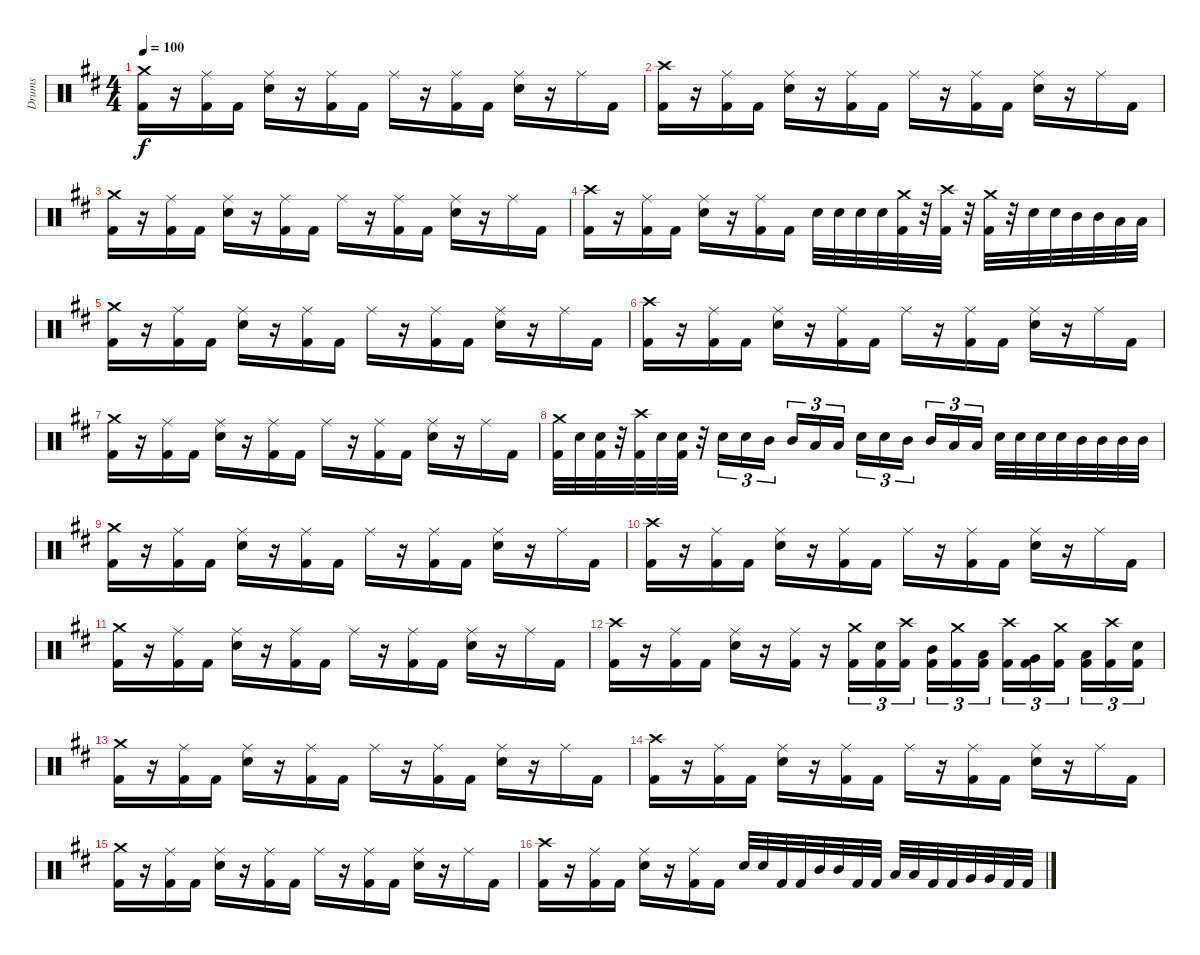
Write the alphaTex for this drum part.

\track ("Drums" "Drums") {instrument percussion}
\staff {score}
\articulation defaults
\ts (4 4)
\tempo 100
\clef neutral
\ks d
("Crash medium (hit)" "Kick (hit) 2").16{dy f} r.16 ("Ride (middle)" "Kick (hit) 2").16 "Kick (hit) 2".16 ("Ride (middle)" "Snare (hit) 2").16 r.16 ("Ride (middle)" "Kick (hit) 2").16 "Kick (hit) 2".16 "Ride (middle)".16 r.16 ("Ride (middle)" "Kick (hit) 2").16 "Kick (hit) 2".16 ("Ride (middle)" "Snare (hit) 2").16 r.16 "Ride (middle)".16 "Kick (hit) 2".16 |
("Crash high (hit)" "Kick (hit) 2").16 r.16 ("Ride (middle)" "Kick (hit) 2").16 "Kick (hit) 2".16 ("Ride (middle)" "Snare (hit) 2").16 r.16 ("Ride (middle)" "Kick (hit) 2").16 "Kick (hit) 2".16 "Ride (middle)".16 r.16 ("Ride (middle)" "Kick (hit) 2").16 "Kick (hit) 2".16 ("Ride (middle)" "Snare (hit) 2").16 r.16 "Ride (middle)".16 "Kick (hit) 2".16 |
("Crash medium (hit)" "Kick (hit) 2").16 r.16 ("Ride (middle)" "Kick (hit) 2").16 "Kick (hit) 2".16 ("Ride (middle)" "Snare (hit) 2").16 r.16 ("Ride (middle)" "Kick (hit) 2").16 "Kick (hit) 2".16 "Ride (middle)".16 r.16 ("Ride (middle)" "Kick (hit) 2").16 "Kick (hit) 2".16 ("Ride (middle)" "Snare (hit) 2").16 r.16 "Ride (middle)".16 "Kick (hit) 2".16 |
("Crash high (hit)" "Kick (hit) 2").16 r.16 ("Ride (middle)" "Kick (hit) 2").16 "Kick (hit) 2".16 ("Ride (middle)" "Snare (hit) 2").16 r.16 ("Ride (middle)" "Kick (hit) 2").16 "Kick (hit) 2".16 "Snare (hit) 2".32 "Snare (hit) 2".32 "Snare (hit) 2".32 "Snare (hit) 2".32 ("Crash medium (hit)" "Kick (hit) 2").32 r.32 ("Crash high (hit)" "Kick (hit) 2").32 r.32 ("Crash medium (hit)" "Kick (hit) 2").32 r.32 "Snare (hit) 2".32 "Snare (hit) 2".32 "Mid Tom (hit)".32 "Mid Tom (hit)".32 "Low Tom (hit)".32 "Low Tom (hit)".32 |
("Crash medium (hit)" "Kick (hit) 2").16 r.16 ("Ride (middle)" "Kick (hit) 2").16 "Kick (hit) 2".16 ("Ride (middle)" "Snare (hit) 2").16 r.16 ("Ride (middle)" "Kick (hit) 2").16 "Kick (hit) 2".16 "Ride (middle)".16 r.16 ("Ride (middle)" "Kick (hit) 2").16 "Kick (hit) 2".16 ("Ride (middle)" "Snare (hit) 2").16 r.16 "Ride (middle)".16 "Kick (hit) 2".16 |
("Crash high (hit)" "Kick (hit) 2").16 r.16 ("Ride (middle)" "Kick (hit) 2").16 "Kick (hit) 2".16 ("Ride (middle)" "Snare (hit) 2").16 r.16 ("Ride (middle)" "Kick (hit) 2").16 "Kick (hit) 2".16 "Ride (middle)".16 r.16 ("Ride (middle)" "Kick (hit) 2").16 "Kick (hit) 2".16 ("Ride (middle)" "Snare (hit) 2").16 r.16 "Ride (middle)".16 "Kick (hit) 2".16 |
("Crash medium (hit)" "Kick (hit) 2").16 r.16 ("Ride (middle)" "Kick (hit) 2").16 "Kick (hit) 2".16 ("Ride (middle)" "Snare (hit) 2").16 r.16 ("Ride (middle)" "Kick (hit) 2").16 "Kick (hit) 2".16 "Ride (middle)".16 r.16 ("Ride (middle)" "Kick (hit) 2").16 "Kick (hit) 2".16 ("Ride (middle)" "Snare (hit) 2").16 r.16 "Ride (middle)".16 "Kick (hit) 2".16 |
("Crash medium (hit)" "Kick (hit) 2").32 "Snare (hit) 2".32 ("Snare (hit) 2" "Kick (hit) 2").32 r.32 ("Crash high (hit)" "Kick (hit) 2").32 "Snare (hit) 2".32 ("Snare (hit) 2" "Kick (hit) 2").32 r.32 "Snare (hit) 2".16{tu (3 2)} "Snare (hit) 2".16{tu (3 2)} "Mid Tom (hit)".16{tu (3 2) beam splitsecondary} "Mid Tom (hit)".16{tu (3 2)} "Low Tom (hit)".16{tu (3 2)} "Low Tom (hit)".16{tu (3 2)} "Snare (hit) 2".16{tu (3 2)} "Snare (hit) 2".16{tu (3 2)} "Mid Tom (hit)".16{tu (3 2) beam splitsecondary} "Mid Tom (hit)".16{tu (3 2)} "Low Tom (hit)".16{tu (3 2)} "Low Tom (hit)".16{tu (3 2)} "Snare (hit) 2".32 "Snare (hit) 2".32 "Snare (hit) 2".32 "Snare (hit) 2".32 "Mid Tom (hit)".32 "Mid Tom (hit)".32 "Mid Tom (hit)".32 "Mid Tom (hit)".32 |
("Crash medium (hit)" "Kick (hit) 2").16 r.16 ("Ride (middle)" "Kick (hit) 2").16 "Kick (hit) 2".16 ("Ride (middle)" "Snare (hit) 2").16 r.16 ("Ride (middle)" "Kick (hit) 2").16 "Kick (hit) 2".16 "Ride (middle)".16 r.16 ("Ride (middle)" "Kick (hit) 2").16 "Kick (hit) 2".16 ("Ride (middle)" "Snare (hit) 2").16 r.16 "Ride (middle)".16 "Kick (hit) 2".16 |
("Crash high (hit)" "Kick (hit) 2").16 r.16 ("Ride (middle)" "Kick (hit) 2").16 "Kick (hit) 2".16 ("Ride (middle)" "Snare (hit) 2").16 r.16 ("Ride (middle)" "Kick (hit) 2").16 "Kick (hit) 2".16 "Ride (middle)".16 r.16 ("Ride (middle)" "Kick (hit) 2").16 "Kick (hit) 2".16 ("Ride (middle)" "Snare (hit) 2").16 r.16 "Ride (middle)".16 "Kick (hit) 2".16 |
("Crash medium (hit)" "Kick (hit) 2").16 r.16 ("Ride (middle)" "Kick (hit) 2").16 "Kick (hit) 2".16 ("Ride (middle)" "Snare (hit) 2").16 r.16 ("Ride (middle)" "Kick (hit) 2").16 "Kick (hit) 2".16 "Ride (middle)".16 r.16 ("Ride (middle)" "Kick (hit) 2").16 "Kick (hit) 2".16 ("Ride (middle)" "Snare (hit) 2").16 r.16 "Ride (middle)".16 "Kick (hit) 2".16 |
("Crash high (hit)" "Kick (hit) 2").16 r.16 ("Ride (middle)" "Kick (hit) 2").16 "Kick (hit) 2".16 ("Ride (middle)" "Snare (hit) 2").16 r.16 ("Ride (middle)" "Kick (hit) 2").16 r.16 ("Crash medium (hit)" "Kick (hit) 2").16{tu (3 2)} ("Snare (hit) 2" "Kick (hit) 2").16{tu (3 2)} ("Crash high (hit)" "Kick (hit) 2").16{tu (3 2) beam splitsecondary} ("Mid Tom (hit)" "Kick (hit) 2").16{tu (3 2)} ("Crash medium (hit)" "Kick (hit) 2").16{tu (3 2)} ("Low Tom (hit)" "Kick (hit) 2").16{tu (3 2)} ("Crash high (hit)" "Kick (hit) 2").16{tu (3 2)} ("Very Low Tom (hit)" "Kick (hit) 2").16{tu (3 2)} ("Crash medium (hit)" "Kick (hit) 2").16{tu (3 2) beam splitsecondary} ("Low Floor Tom (hit)" "Kick (hit) 2").16{tu (3 2)} ("Crash high (hit)" "Kick (hit) 2").16{tu (3 2)} ("Snare (hit) 2" "Kick (hit) 2").16{tu (3 2)} |
("Crash medium (hit)" "Kick (hit) 2").16 r.16 ("Ride (middle)" "Kick (hit) 2").16 "Kick (hit) 2".16 ("Ride (middle)" "Snare (hit) 2").16 r.16 ("Ride (middle)" "Kick (hit) 2").16 "Kick (hit) 2".16 "Ride (middle)".16 r.16 ("Ride (middle)" "Kick (hit) 2").16 "Kick (hit) 2".16 ("Ride (middle)" "Snare (hit) 2").16 r.16 "Ride (middle)".16 "Kick (hit) 2".16 |
("Crash high (hit)" "Kick (hit) 2").16 r.16 ("Ride (middle)" "Kick (hit) 2").16 "Kick (hit) 2".16 ("Ride (middle)" "Snare (hit) 2").16 r.16 ("Ride (middle)" "Kick (hit) 2").16 "Kick (hit) 2".16 "Ride (middle)".16 r.16 ("Ride (middle)" "Kick (hit) 2").16 "Kick (hit) 2".16 ("Ride (middle)" "Snare (hit) 2").16 r.16 "Ride (middle)".16 "Kick (hit) 2".16 |
("Crash medium (hit)" "Kick (hit) 2").16 r.16 ("Ride (middle)" "Kick (hit) 2").16 "Kick (hit) 2".16 ("Ride (middle)" "Snare (hit) 2").16 r.16 ("Ride (middle)" "Kick (hit) 2").16 "Kick (hit) 2".16 "Ride (middle)".16 r.16 ("Ride (middle)" "Kick (hit) 2").16 "Kick (hit) 2".16 ("Ride (middle)" "Snare (hit) 2").16 r.16 "Ride (middle)".16 "Kick (hit) 2".16 |
("Crash high (hit)" "Kick (hit) 2").16 r.16 ("Ride (middle)" "Kick (hit) 2").16 "Kick (hit) 2".16 ("Ride (middle)" "Snare (hit) 2").16 r.16 ("Ride (middle)" "Kick (hit) 2").16 "Kick (hit) 2".16 "Snare (hit) 2".32 "Snare (hit) 2".32 "Kick (hit) 2".32 "Kick (hit) 2".32 "Mid Tom (hit)".32 "Mid Tom (hit)".32 "Kick (hit) 2".32 "Kick (hit) 2".32 "Low Tom (hit)".32 "Low Tom (hit)".32 "Kick (hit) 2".32 "Kick (hit) 2".32 "Very Low Tom (hit)".32 "Very Low Tom (hit)".32 "Kick (hit) 2".32 "Kick (hit) 2".32
